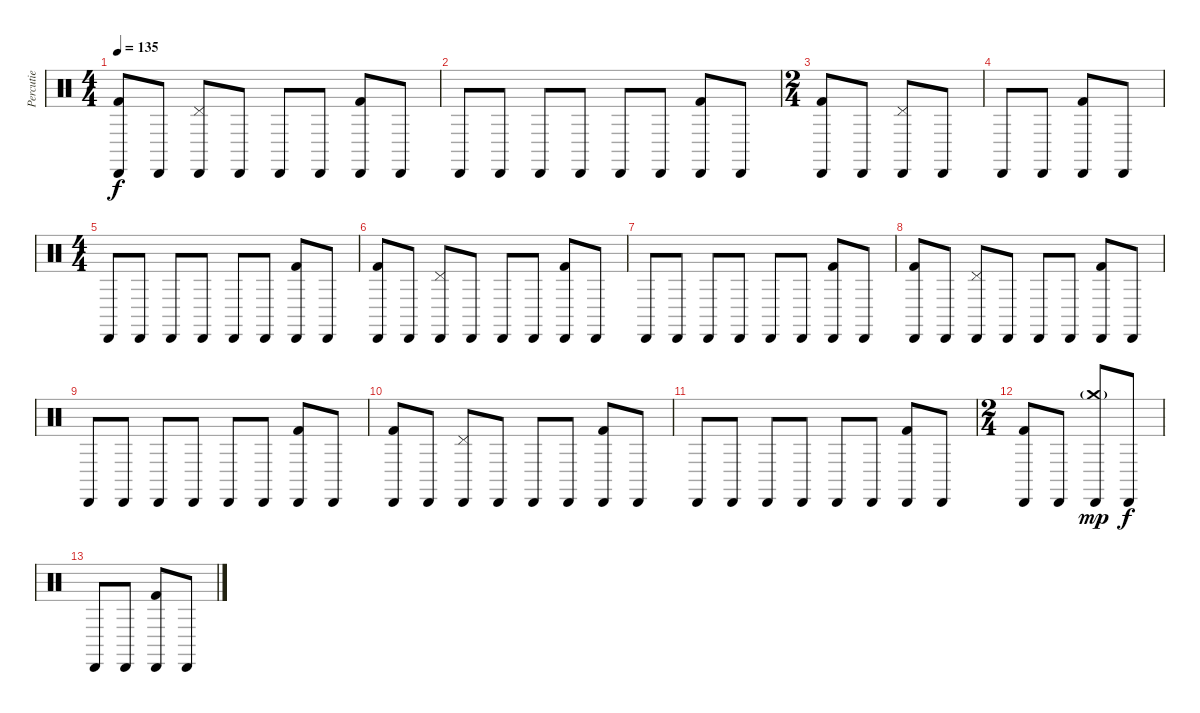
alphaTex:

\track ("Percutie" "Percutie") {instrument percussion}
\staff {score}
\articulation defaults
\ts (4 4)
\tempo 135
\clef neutral
\ks c
("Cabasa (hit)" "Kick (hit) 2").8{dy f} "Cabasa (hit)".8 ("Pedal Hi-Hat (hit)" "Cabasa (hit)").8 "Cabasa (hit)".8 "Cabasa (hit)".8 "Cabasa (hit)".8 ("Cabasa (hit)" "Kick (hit) 2").8 "Cabasa (hit)".8 |
"Cabasa (hit)".8 "Cabasa (hit)".8 "Cabasa (hit)".8 "Cabasa (hit)".8 "Cabasa (hit)".8 "Cabasa (hit)".8 ("Cabasa (hit)" "Kick (hit) 2").8 "Cabasa (hit)".8 |
\ts (2 4)
("Cabasa (hit)" "Kick (hit) 2").8 "Cabasa (hit)".8 ("Pedal Hi-Hat (hit)" "Cabasa (hit)").8 "Cabasa (hit)".8 |
"Cabasa (hit)".8 "Cabasa (hit)".8 ("Cabasa (hit)" "Kick (hit) 2").8 "Cabasa (hit)".8 |
\ts (4 4)
"Cabasa (hit)".8 "Cabasa (hit)".8 "Cabasa (hit)".8 "Cabasa (hit)".8 "Cabasa (hit)".8 "Cabasa (hit)".8 ("Cabasa (hit)" "Kick (hit) 2").8 "Cabasa (hit)".8 |
("Cabasa (hit)" "Kick (hit) 2").8 "Cabasa (hit)".8 ("Pedal Hi-Hat (hit)" "Cabasa (hit)").8 "Cabasa (hit)".8 "Cabasa (hit)".8 "Cabasa (hit)".8 ("Cabasa (hit)" "Kick (hit) 2").8 "Cabasa (hit)".8 |
"Cabasa (hit)".8 "Cabasa (hit)".8 "Cabasa (hit)".8 "Cabasa (hit)".8 "Cabasa (hit)".8 "Cabasa (hit)".8 ("Cabasa (hit)" "Kick (hit) 2").8 "Cabasa (hit)".8 |
("Cabasa (hit)" "Kick (hit) 2").8 "Cabasa (hit)".8 ("Pedal Hi-Hat (hit)" "Cabasa (hit)").8 "Cabasa (hit)".8 "Cabasa (hit)".8 "Cabasa (hit)".8 ("Cabasa (hit)" "Kick (hit) 2").8 "Cabasa (hit)".8 |
"Cabasa (hit)".8 "Cabasa (hit)".8 "Cabasa (hit)".8 "Cabasa (hit)".8 "Cabasa (hit)".8 "Cabasa (hit)".8 ("Cabasa (hit)" "Kick (hit) 2").8 "Cabasa (hit)".8 |
("Cabasa (hit)" "Kick (hit) 2").8 "Cabasa (hit)".8 ("Pedal Hi-Hat (hit)" "Cabasa (hit)").8 "Cabasa (hit)".8 "Cabasa (hit)".8 "Cabasa (hit)".8 ("Cabasa (hit)" "Kick (hit) 2").8 "Cabasa (hit)".8 |
"Cabasa (hit)".8 "Cabasa (hit)".8 "Cabasa (hit)".8 "Cabasa (hit)".8 "Cabasa (hit)".8 "Cabasa (hit)".8 ("Cabasa (hit)" "Kick (hit) 2").8 "Cabasa (hit)".8 |
\ts (2 4)
("Cabasa (hit)" "Kick (hit) 2").8 "Cabasa (hit)".8 ("Crash medium (hit)"{g} "Cabasa (hit)").8{dy mp} "Cabasa (hit)".8{dy f} |
"Cabasa (hit)".8 "Cabasa (hit)".8 ("Cabasa (hit)" "Kick (hit) 2").8 "Cabasa (hit)".8
